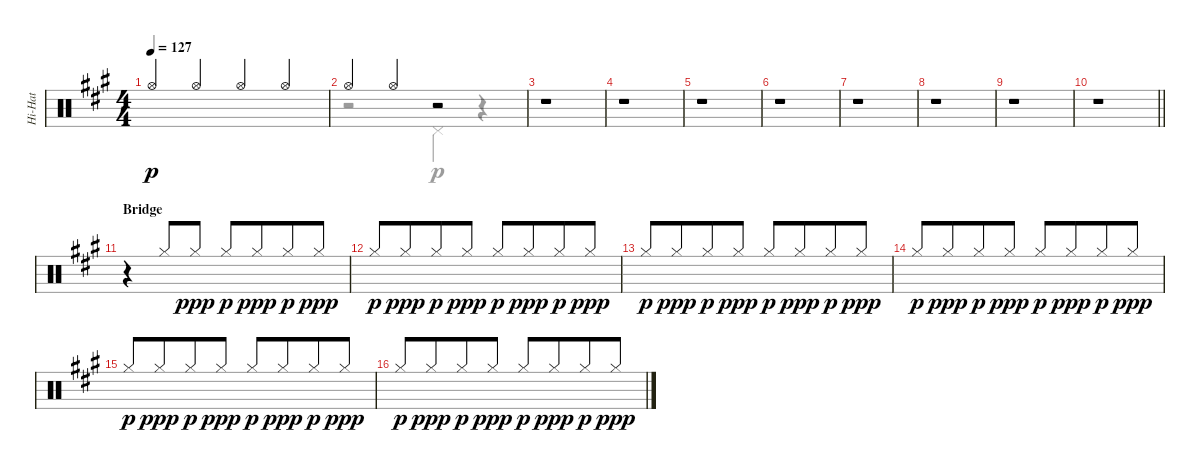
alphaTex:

\track ("Hi-Hat" "Hi-Hat") {instrument percussion}
\staff {score}
\articulation defaults
\voice
\ts (4 4)
\tempo 127
\clef neutral
\ks a "Hi-Hat (open)".4{dy p beam Up} "Hi-Hat (open)".4{beam Up} "Hi-Hat (open)".4{beam Up} "Hi-Hat (open)".4{beam Up}
|
"Hi-Hat (open)".4{beam Up} "Hi-Hat (open)".4{beam Up} r.2 |
r.1 |
r.1 |
r.1 |
r.1 |
r.1 |
r.1 |
r.1 |
\barLineRight lightlight
r.1 |
\section ("" "Bridge")
r.4{volume 1} "Hi-Hat (closed)".8{beam Up} "Hi-Hat (closed)".8{dy ppp beam Up} "Hi-Hat (closed)".8{dy p beam Up} "Hi-Hat (closed)".8{dy ppp beam Up beam merge} "Hi-Hat (closed)".8{dy p beam Up} "Hi-Hat (closed)".8{dy ppp beam Up} |
"Hi-Hat (closed)".8{dy p beam Up} "Hi-Hat (closed)".8{dy ppp beam Up beam merge} "Hi-Hat (closed)".8{dy p beam Up} "Hi-Hat (closed)".8{dy ppp beam Up} "Hi-Hat (closed)".8{dy p beam Up} "Hi-Hat (closed)".8{dy ppp beam Up beam merge} "Hi-Hat (closed)".8{dy p beam Up} "Hi-Hat (closed)".8{dy ppp beam Up} |
"Hi-Hat (closed)".8{dy p beam Up} "Hi-Hat (closed)".8{dy ppp beam Up beam merge} "Hi-Hat (closed)".8{dy p beam Up} "Hi-Hat (closed)".8{dy ppp beam Up} "Hi-Hat (closed)".8{dy p beam Up} "Hi-Hat (closed)".8{dy ppp beam Up beam merge} "Hi-Hat (closed)".8{dy p beam Up} "Hi-Hat (closed)".8{dy ppp beam Up} |
"Hi-Hat (closed)".8{dy p beam Up} "Hi-Hat (closed)".8{dy ppp beam Up beam merge} "Hi-Hat (closed)".8{dy p beam Up} "Hi-Hat (closed)".8{dy ppp beam Up} "Hi-Hat (closed)".8{dy p beam Up} "Hi-Hat (closed)".8{dy ppp beam Up beam merge} "Hi-Hat (closed)".8{dy p beam Up} "Hi-Hat (closed)".8{dy ppp beam Up} |
"Hi-Hat (closed)".8{dy p beam Up} "Hi-Hat (closed)".8{dy ppp beam Up beam merge} "Hi-Hat (closed)".8{dy p beam Up} "Hi-Hat (closed)".8{dy ppp beam Up} "Hi-Hat (closed)".8{dy p beam Up} "Hi-Hat (closed)".8{dy ppp beam Up beam merge} "Hi-Hat (closed)".8{dy p beam Up} "Hi-Hat (closed)".8{dy ppp beam Up} |
"Hi-Hat (closed)".8{dy p beam Up} "Hi-Hat (closed)".8{dy ppp beam Up beam merge} "Hi-Hat (closed)".8{dy p beam Up} "Hi-Hat (closed)".8{dy ppp beam Up} "Hi-Hat (closed)".8{dy p beam Up} "Hi-Hat (closed)".8{dy ppp beam Up beam merge} "Hi-Hat (closed)".8{dy p beam Up} "Hi-Hat (closed)".8{dy ppp beam Up}
\voice
\clef neutral
\ottava regular
\simile none
\ks a
|
r.2 "Pedal Hi-Hat (hit)".4{dy p} r.4 |
|
|
|
|
|
|
|
\barLineRight lightlight
|
|
|
|
|
|
